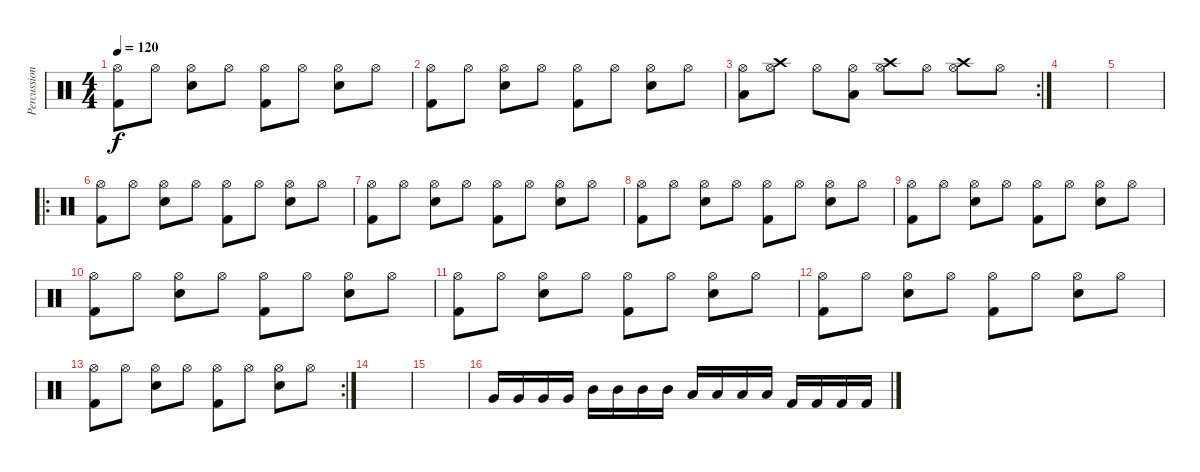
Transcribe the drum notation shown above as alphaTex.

\track ("Percussion" "Percussion") {instrument percussion}
\staff {score}
\articulation defaults
\ts (4 4)
\tempo 120
\clef neutral
\ks c
("Hi-Hat (open)" "Kick (hit) 2").8{dy f} "Hi-Hat (open)".8 ("Hi-Hat (open)" "Electric Snare (hit)").8 "Hi-Hat (open)".8 ("Hi-Hat (open)" "Kick (hit) 2").8 "Hi-Hat (open)".8 ("Hi-Hat (open)" "Electric Snare (hit)").8 "Hi-Hat (open)".8 |
("Hi-Hat (open)" "Kick (hit) 2").8 "Hi-Hat (open)".8 ("Hi-Hat (open)" "Electric Snare (hit)").8 "Hi-Hat (open)".8 ("Hi-Hat (open)" "Kick (hit) 2").8 "Hi-Hat (open)".8 ("Hi-Hat (open)" "Electric Snare (hit)").8 "Hi-Hat (open)".8 |
\rc 2
("Low Tom (hit)" "Hi-Hat (open)").8 ("Crash high (hit)" "Hi-Hat (open)").8 "Hi-Hat (open)".8 ("Low Tom (hit)" "Hi-Hat (open)").8 ("Crash high (hit)" "Hi-Hat (open)").8 "Hi-Hat (open)".8 ("Crash high (hit)" "Hi-Hat (open)").8 "Hi-Hat (open)".8 |
|
|
\ro
("Hi-Hat (open)" "Kick (hit) 2").8 "Hi-Hat (open)".8 ("Hi-Hat (open)" "Electric Snare (hit)").8 "Hi-Hat (open)".8 ("Hi-Hat (open)" "Kick (hit) 2").8 "Hi-Hat (open)".8 ("Hi-Hat (open)" "Electric Snare (hit)").8 "Hi-Hat (open)".8 |
("Hi-Hat (open)" "Kick (hit) 2").8 "Hi-Hat (open)".8 ("Hi-Hat (open)" "Electric Snare (hit)").8 "Hi-Hat (open)".8 ("Hi-Hat (open)" "Kick (hit) 2").8 "Hi-Hat (open)".8 ("Hi-Hat (open)" "Electric Snare (hit)").8 "Hi-Hat (open)".8 |
("Hi-Hat (open)" "Kick (hit) 2").8 "Hi-Hat (open)".8 ("Hi-Hat (open)" "Electric Snare (hit)").8 "Hi-Hat (open)".8 ("Hi-Hat (open)" "Kick (hit) 2").8 "Hi-Hat (open)".8 ("Hi-Hat (open)" "Electric Snare (hit)").8 "Hi-Hat (open)".8 |
("Hi-Hat (open)" "Kick (hit) 2").8 "Hi-Hat (open)".8 ("Hi-Hat (open)" "Electric Snare (hit)").8 "Hi-Hat (open)".8 ("Hi-Hat (open)" "Kick (hit) 2").8 "Hi-Hat (open)".8 ("Hi-Hat (open)" "Electric Snare (hit)").8 "Hi-Hat (open)".8 |
("Hi-Hat (open)" "Kick (hit) 2").8 "Hi-Hat (open)".8 ("Hi-Hat (open)" "Electric Snare (hit)").8 "Hi-Hat (open)".8 ("Hi-Hat (open)" "Kick (hit) 2").8 "Hi-Hat (open)".8 ("Hi-Hat (open)" "Electric Snare (hit)").8 "Hi-Hat (open)".8 |
("Hi-Hat (open)" "Kick (hit) 2").8 "Hi-Hat (open)".8 ("Hi-Hat (open)" "Electric Snare (hit)").8 "Hi-Hat (open)".8 ("Hi-Hat (open)" "Kick (hit) 2").8 "Hi-Hat (open)".8 ("Hi-Hat (open)" "Electric Snare (hit)").8 "Hi-Hat (open)".8 |
("Hi-Hat (open)" "Kick (hit) 2").8 "Hi-Hat (open)".8 ("Hi-Hat (open)" "Electric Snare (hit)").8 "Hi-Hat (open)".8 ("Hi-Hat (open)" "Kick (hit) 2").8 "Hi-Hat (open)".8 ("Hi-Hat (open)" "Electric Snare (hit)").8 "Hi-Hat (open)".8 |
\rc 2
("Hi-Hat (open)" "Kick (hit) 2").8 "Hi-Hat (open)".8 ("Hi-Hat (open)" "Electric Snare (hit)").8 "Hi-Hat (open)".8 ("Hi-Hat (open)" "Kick (hit) 2").8 "Hi-Hat (open)".8 ("Hi-Hat (open)" "Electric Snare (hit)").8 "Hi-Hat (open)".8 |
|
|
"Very Low Tom (hit)".16 "Very Low Tom (hit)".16 "Very Low Tom (hit)".16 "Very Low Tom (hit)".16 "Mid Tom (hit)".16 "Mid Tom (hit)".16 "Mid Tom (hit)".16 "Mid Tom (hit)".16 "Low Tom (hit)".16 "Low Tom (hit)".16 "Low Tom (hit)".16 "Low Tom (hit)".16 "Kick (hit) 2".16 "Kick (hit) 2".16 "Kick (hit) 2".16 "Kick (hit) 2".16
